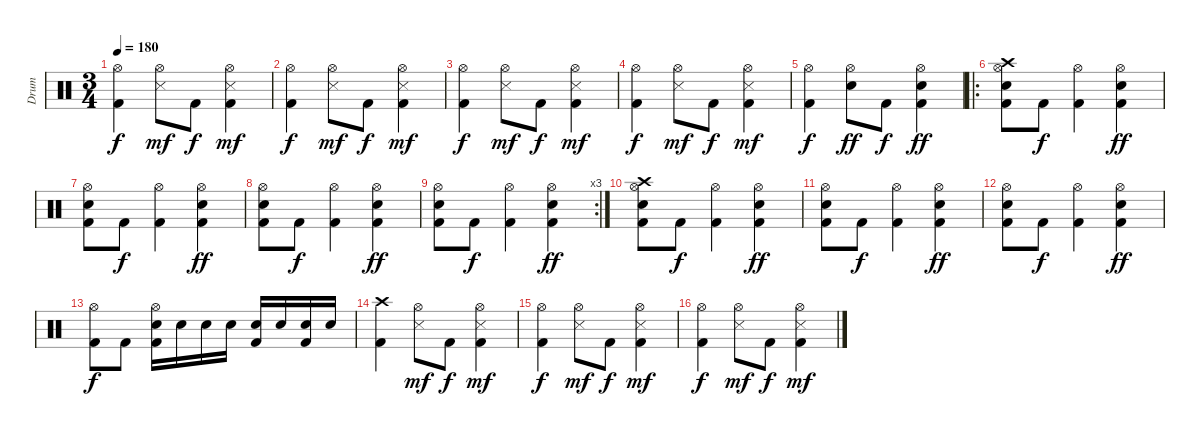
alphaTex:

\track ("Drum" "Drum") {instrument percussion}
\staff {score}
\articulation defaults
\ts (3 4)
\tempo 180
\clef neutral
\ks c
("Hi-Hat (open)" "Kick (hit) 2").4{dy f} ("Hi-Hat (open)" "Snare (side stick) 3").8{dy mf} "Kick (hit) 2".8{dy f} ("Hi-Hat (open)" "Snare (side stick) 3" "Kick (hit) 2").4{dy mf} |
("Hi-Hat (open)" "Kick (hit) 2").4{dy f} ("Hi-Hat (open)" "Snare (side stick) 3").8{dy mf} "Kick (hit) 2".8{dy f} ("Hi-Hat (open)" "Snare (side stick) 3" "Kick (hit) 2").4{dy mf} |
("Hi-Hat (open)" "Kick (hit) 2").4{dy f} ("Hi-Hat (open)" "Snare (side stick) 3").8{dy mf} "Kick (hit) 2".8{dy f} ("Hi-Hat (open)" "Snare (side stick) 3" "Kick (hit) 2").4{dy mf} |
("Hi-Hat (open)" "Kick (hit) 2").4{dy f} ("Hi-Hat (open)" "Snare (side stick) 3").8{dy mf} "Kick (hit) 2".8{dy f} ("Hi-Hat (open)" "Snare (side stick) 3" "Kick (hit) 2").4{dy mf} |
("Hi-Hat (open)" "Kick (hit) 2").4{dy f} ("Hi-Hat (open)" "Electric Snare (hit)").8{dy ff} "Kick (hit) 2".8{dy f} ("Hi-Hat (open)" "Electric Snare (hit)" "Kick (hit) 2").4{dy ff} |
\ro
("Crash high (hit)" "Hi-Hat (open)" "Electric Snare (hit)" "Kick (hit) 2").8 "Kick (hit) 2".8{dy f} ("Hi-Hat (open)" "Kick (hit) 2").4 ("Hi-Hat (open)" "Electric Snare (hit)" "Kick (hit) 2").4{dy ff} |
("Hi-Hat (open)" "Electric Snare (hit)" "Kick (hit) 2").8 "Kick (hit) 2".8{dy f} ("Hi-Hat (open)" "Kick (hit) 2").4 ("Hi-Hat (open)" "Electric Snare (hit)" "Kick (hit) 2").4{dy ff} |
("Hi-Hat (open)" "Electric Snare (hit)" "Kick (hit) 2").8 "Kick (hit) 2".8{dy f} ("Hi-Hat (open)" "Kick (hit) 2").4 ("Hi-Hat (open)" "Electric Snare (hit)" "Kick (hit) 2").4{dy ff} |
\rc 3
("Hi-Hat (open)" "Electric Snare (hit)" "Kick (hit) 2").8 "Kick (hit) 2".8{dy f} ("Hi-Hat (open)" "Kick (hit) 2").4 ("Hi-Hat (open)" "Electric Snare (hit)" "Kick (hit) 2").4{dy ff} |
("Crash high (hit)" "Hi-Hat (open)" "Electric Snare (hit)" "Kick (hit) 2").8 "Kick (hit) 2".8{dy f} ("Hi-Hat (open)" "Kick (hit) 2").4 ("Hi-Hat (open)" "Electric Snare (hit)" "Kick (hit) 2").4{dy ff} |
("Hi-Hat (open)" "Electric Snare (hit)" "Kick (hit) 2").8 "Kick (hit) 2".8{dy f} ("Hi-Hat (open)" "Kick (hit) 2").4 ("Hi-Hat (open)" "Electric Snare (hit)" "Kick (hit) 2").4{dy ff} |
("Hi-Hat (open)" "Electric Snare (hit)" "Kick (hit) 2").8 "Kick (hit) 2".8{dy f} ("Hi-Hat (open)" "Kick (hit) 2").4 ("Hi-Hat (open)" "Electric Snare (hit)" "Kick (hit) 2").4{dy ff} |
("Hi-Hat (open)" "Kick (hit) 2").8{dy f} "Kick (hit) 2".8 ("Hi-Hat (open)" "Electric Snare (hit)" "Kick (hit) 2").16 "Electric Snare (hit)".16 "Electric Snare (hit)".16 "Electric Snare (hit)".16 ("Electric Snare (hit)" "Kick (hit) 2").16 "Electric Snare (hit)".16 ("Electric Snare (hit)" "Kick (hit) 2").16 "Electric Snare (hit)".16 |
("Crash high (hit)" "Kick (hit) 2").4 ("Hi-Hat (open)" "Snare (side stick) 3").8{dy mf} "Kick (hit) 2".8{dy f} ("Hi-Hat (open)" "Snare (side stick) 3" "Kick (hit) 2").4{dy mf} |
("Hi-Hat (open)" "Kick (hit) 2").4{dy f} ("Hi-Hat (open)" "Snare (side stick) 3").8{dy mf} "Kick (hit) 2".8{dy f} ("Hi-Hat (open)" "Snare (side stick) 3" "Kick (hit) 2").4{dy mf} |
("Hi-Hat (open)" "Kick (hit) 2").4{dy f} ("Hi-Hat (open)" "Snare (side stick) 3").8{dy mf} "Kick (hit) 2".8{dy f} ("Hi-Hat (open)" "Snare (side stick) 3" "Kick (hit) 2").4{dy mf}
